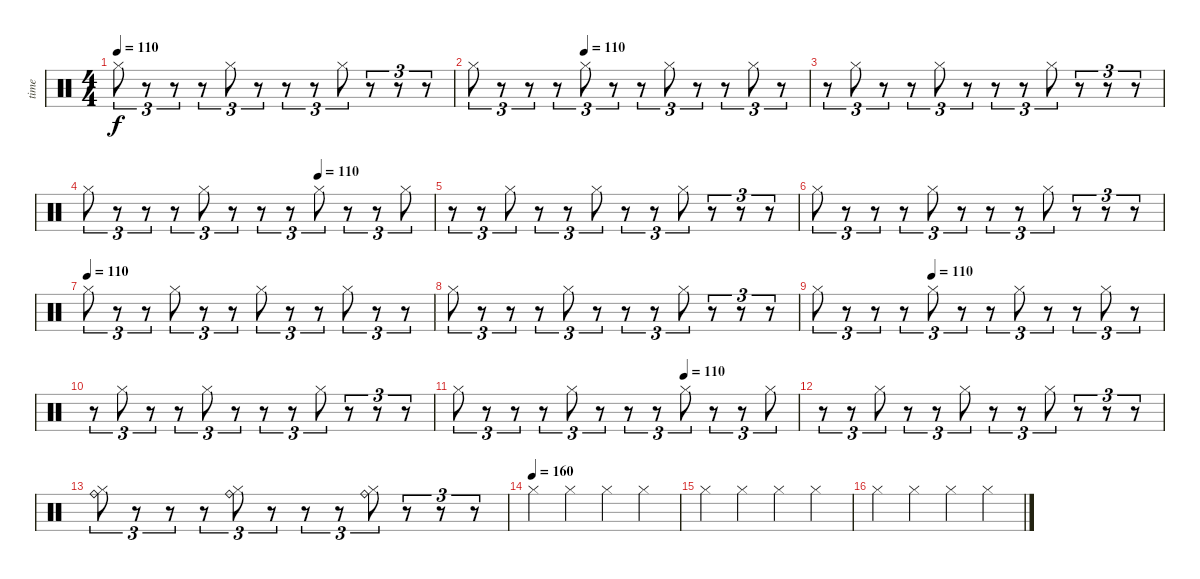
\track ("time" "time") {instrument percussion}
\staff {score}
\articulation defaults
\ts (4 4)
\tempo 110
\clef neutral
\ks c "Hi-Hat (closed)".8{tu (3 2) dy f}
r.8{tu (3 2)} r.8{tu (3 2)} r.8{tu (3 2)} "Hi-Hat (closed)".8{tu (3 2)} r.8{tu (3 2)} r.8{tu (3 2)} r.8{tu (3 2)} "Hi-Hat (closed)".8{tu (3 2)} r.8{tu (3 2)} r.8{tu (3 2)} r.8{tu (3 2)} |
\tempo (110 0.3333333333333333)
"Hi-Hat (closed)".8{tu (3 2)} r.8{tu (3 2)} r.8{tu (3 2)} r.8{tu (3 2)} "Hi-Hat (closed)".8{tu (3 2)} r.8{tu (3 2)} r.8{tu (3 2)} "Hi-Hat (closed)".8{tu (3 2)} r.8{tu (3 2)} r.8{tu (3 2)} "Hi-Hat (closed)".8{tu (3 2)} r.8{tu (3 2)} |
r.8{tu (3 2)} "Hi-Hat (closed)".8{tu (3 2)} r.8{tu (3 2)} r.8{tu (3 2)} "Hi-Hat (closed)".8{tu (3 2)} r.8{tu (3 2)} r.8{tu (3 2)} r.8{tu (3 2)} "Hi-Hat (closed)".8{tu (3 2)} r.8{tu (3 2)} r.8{tu (3 2)} r.8{tu (3 2)} |
\tempo (110 0.6666666666666666)
"Hi-Hat (closed)".8{tu (3 2)} r.8{tu (3 2)} r.8{tu (3 2)} r.8{tu (3 2)} "Hi-Hat (closed)".8{tu (3 2)} r.8{tu (3 2)} r.8{tu (3 2)} r.8{tu (3 2)} "Hi-Hat (closed)".8{tu (3 2)} r.8{tu (3 2)} r.8{tu (3 2)} "Hi-Hat (closed)".8{tu (3 2)} |
r.8{tu (3 2)} r.8{tu (3 2)} "Hi-Hat (closed)".8{tu (3 2)} r.8{tu (3 2)} r.8{tu (3 2)} "Hi-Hat (closed)".8{tu (3 2)} r.8{tu (3 2)} r.8{tu (3 2)} "Hi-Hat (closed)".8{tu (3 2)} r.8{tu (3 2)} r.8{tu (3 2)} r.8{tu (3 2)} |
"Hi-Hat (closed)".8{tu (3 2)} r.8{tu (3 2)} r.8{tu (3 2)} r.8{tu (3 2)} "Hi-Hat (closed)".8{tu (3 2)} r.8{tu (3 2)} r.8{tu (3 2)} r.8{tu (3 2)} "Hi-Hat (closed)".8{tu (3 2)} r.8{tu (3 2)} r.8{tu (3 2)} r.8{tu (3 2)} |
\tempo (110)
"Hi-Hat (closed)".8{tu (3 2)} r.8{tu (3 2)} r.8{tu (3 2)} "Hi-Hat (closed)".8{tu (3 2)} r.8{tu (3 2)} r.8{tu (3 2)} "Hi-Hat (closed)".8{tu (3 2)} r.8{tu (3 2)} r.8{tu (3 2)} "Hi-Hat (closed)".8{tu (3 2)} r.8{tu (3 2)} r.8{tu (3 2)} |
"Hi-Hat (closed)".8{tu (3 2)} r.8{tu (3 2)} r.8{tu (3 2)} r.8{tu (3 2)} "Hi-Hat (closed)".8{tu (3 2)} r.8{tu (3 2)} r.8{tu (3 2)} r.8{tu (3 2)} "Hi-Hat (closed)".8{tu (3 2)} r.8{tu (3 2)} r.8{tu (3 2)} r.8{tu (3 2)} |
\tempo (110 0.3333333333333333)
"Hi-Hat (closed)".8{tu (3 2)} r.8{tu (3 2)} r.8{tu (3 2)} r.8{tu (3 2)} "Hi-Hat (closed)".8{tu (3 2)} r.8{tu (3 2)} r.8{tu (3 2)} "Hi-Hat (closed)".8{tu (3 2)} r.8{tu (3 2)} r.8{tu (3 2)} "Hi-Hat (closed)".8{tu (3 2)} r.8{tu (3 2)} |
r.8{tu (3 2)} "Hi-Hat (closed)".8{tu (3 2)} r.8{tu (3 2)} r.8{tu (3 2)} "Hi-Hat (closed)".8{tu (3 2)} r.8{tu (3 2)} r.8{tu (3 2)} r.8{tu (3 2)} "Hi-Hat (closed)".8{tu (3 2)} r.8{tu (3 2)} r.8{tu (3 2)} r.8{tu (3 2)} |
\tempo (110 0.6666666666666666)
"Hi-Hat (closed)".8{tu (3 2)} r.8{tu (3 2)} r.8{tu (3 2)} r.8{tu (3 2)} "Hi-Hat (closed)".8{tu (3 2)} r.8{tu (3 2)} r.8{tu (3 2)} r.8{tu (3 2)} "Hi-Hat (closed)".8{tu (3 2)} r.8{tu (3 2)} r.8{tu (3 2)} "Hi-Hat (closed)".8{tu (3 2)} |
r.8{tu (3 2)} r.8{tu (3 2)} "Hi-Hat (closed)".8{tu (3 2)} r.8{tu (3 2)} r.8{tu (3 2)} "Hi-Hat (closed)".8{tu (3 2)} r.8{tu (3 2)} r.8{tu (3 2)} "Hi-Hat (closed)".8{tu (3 2)} r.8{tu (3 2)} r.8{tu (3 2)} r.8{tu (3 2)} |
("Ride (bell)" "Hi-Hat (closed)").8{tu (3 2)} r.8{tu (3 2)} r.8{tu (3 2)} r.8{tu (3 2)} ("Ride (bell)" "Hi-Hat (closed)").8{tu (3 2)} r.8{tu (3 2)} r.8{tu (3 2)} r.8{tu (3 2)} ("Ride (bell)" "Hi-Hat (closed)").8{tu (3 2)} r.8{tu (3 2)} r.8{tu (3 2)} r.8{tu (3 2)} |
\tempo (160)
"Hi-Hat (closed)".4 "Hi-Hat (closed)".4 "Hi-Hat (closed)".4 "Hi-Hat (closed)".4 |
"Hi-Hat (closed)".4 "Hi-Hat (closed)".4 "Hi-Hat (closed)".4 "Hi-Hat (closed)".4 |
"Hi-Hat (closed)".4 "Hi-Hat (closed)".4 "Hi-Hat (closed)".4 "Hi-Hat (closed)".4
